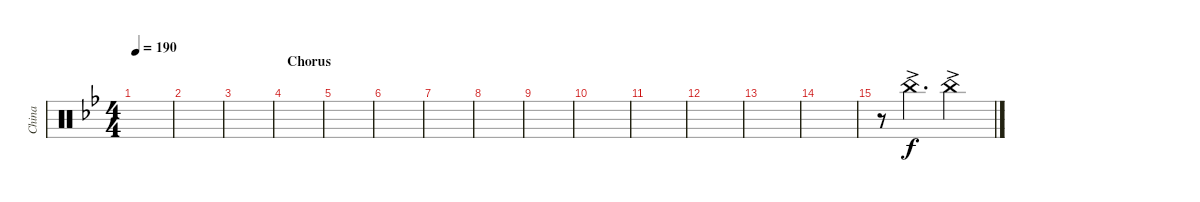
\track ("China" "China") {instrument percussion}
\staff {score}
\articulation defaults
\ts (4 4)
\tempo 190
\clef neutral
\ks bb
|
|
|
\section ("" "Chorus")
|
|
|
|
|
|
|
|
|
|
|
r.8 "China (hit)"{ac}.4{d} "China (hit)"{ac}.2
